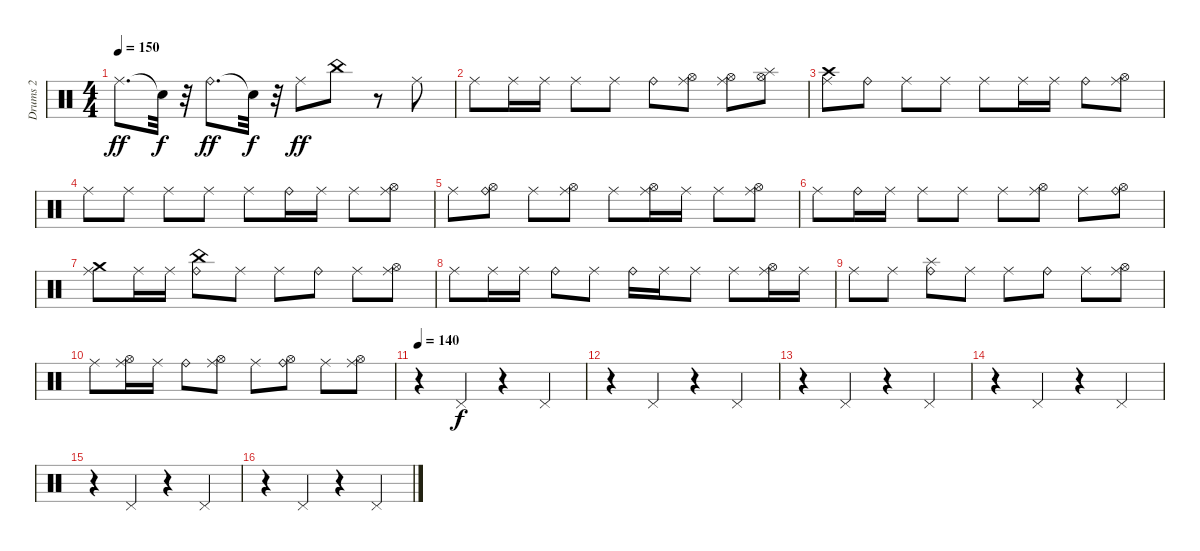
\track ("Drums 2" "Drums 2") {instrument percussion}
\staff {score}
\articulation defaults
\ts (4 4)
\tempo 150
\clef neutral
\ks c "Ride (middle)".8{d dy ff} "Snare (hit)"{t}.32{dy f}
r.32 "Ride (bell)".8{d dy ff} "Snare (hit)"{t}.32{dy f} r.32 "Ride (middle)".8{dy ff} "China (hit)".8 r.8 "Ride (middle)".8 |
"Ride (middle)".8 "Ride (middle)".16 "Ride (middle)".16 "Ride (middle)".8 "Ride (middle)".8 "Ride (bell)".8 ("Hi-Hat (open)" "Ride (middle)").8 ("Hi-Hat (open)" "Ride (middle)").8 ("Hi-Hat (open)" "Splash (hit)").8 |
("Crash high (hit)" "Ride (middle)").8 "Ride (bell)".8 "Ride (middle)".8 "Ride (middle)".8 "Ride (middle)".8 "Ride (middle)".16 "Ride (middle)".16 "Ride (bell)".8 ("Hi-Hat (open)" "Ride (middle)").8 |
"Ride (middle)".8 "Ride (middle)".8 "Ride (middle)".8 "Ride (middle)".8 "Ride (middle)".8 "Ride (bell)".16 "Ride (middle)".16 "Ride (middle)".8 ("Hi-Hat (open)" "Ride (middle)").8 |
"Ride (middle)".8 ("Hi-Hat (open)" "Ride (bell)").8 "Ride (middle)".8 ("Hi-Hat (open)" "Ride (middle)").8 "Ride (middle)".8 ("Hi-Hat (open)" "Ride (middle)").16 "Ride (middle)".16 "Ride (middle)".8 ("Hi-Hat (open)" "Ride (middle)").8 |
"Ride (middle)".8 "Ride (bell)".16 "Ride (middle)".16 "Ride (middle)".8 "Ride (middle)".8 "Ride (middle)".8 ("Hi-Hat (open)" "Ride (middle)").8 "Ride (middle)".8 ("Hi-Hat (open)" "Ride (bell)").8 |
("Ride (middle)" "Crash medium (hit)").8 "Ride (middle)".16 "Ride (middle)".16 ("China (hit)" "Ride (bell)").8 "Ride (middle)".8 "Ride (middle)".8 "Ride (bell)".8 "Ride (middle)".8 ("Hi-Hat (open)" "Ride (middle)").8 |
"Ride (middle)".8 "Ride (middle)".16 "Ride (middle)".16 "Ride (bell)".8 "Ride (middle)".8 "Ride (bell)".16 "Ride (middle)".16 "Ride (middle)".8 "Ride (middle)".8 ("Hi-Hat (open)" "Ride (middle)").16 "Ride (middle)".16 |
"Ride (middle)".8 "Ride (middle)".8 ("Ride (bell)" "Splash (hit)").8 "Ride (middle)".8 "Ride (middle)".8 "Ride (bell)".8 "Ride (middle)".8 ("Hi-Hat (open)" "Ride (middle)").8 |
"Ride (middle)".8 ("Hi-Hat (open)" "Ride (middle)").16 "Ride (middle)".16 "Ride (bell)".8 ("Hi-Hat (open)" "Ride (middle)").8 "Ride (middle)".8 ("Hi-Hat (open)" "Ride (bell)").8 "Ride (middle)".8 ("Hi-Hat (open)" "Ride (middle)").8 |
\tempo 140
r.4 "Pedal Hi-Hat (hit)".4{dy f} r.4 "Pedal Hi-Hat (hit)".4 |
r.4 "Pedal Hi-Hat (hit)".4 r.4 "Pedal Hi-Hat (hit)".4 |
r.4 "Pedal Hi-Hat (hit)".4 r.4 "Pedal Hi-Hat (hit)".4 |
r.4 "Pedal Hi-Hat (hit)".4 r.4 "Pedal Hi-Hat (hit)".4 |
r.4 "Pedal Hi-Hat (hit)".4 r.4 "Pedal Hi-Hat (hit)".4 |
r.4 "Pedal Hi-Hat (hit)".4 r.4 "Pedal Hi-Hat (hit)".4
